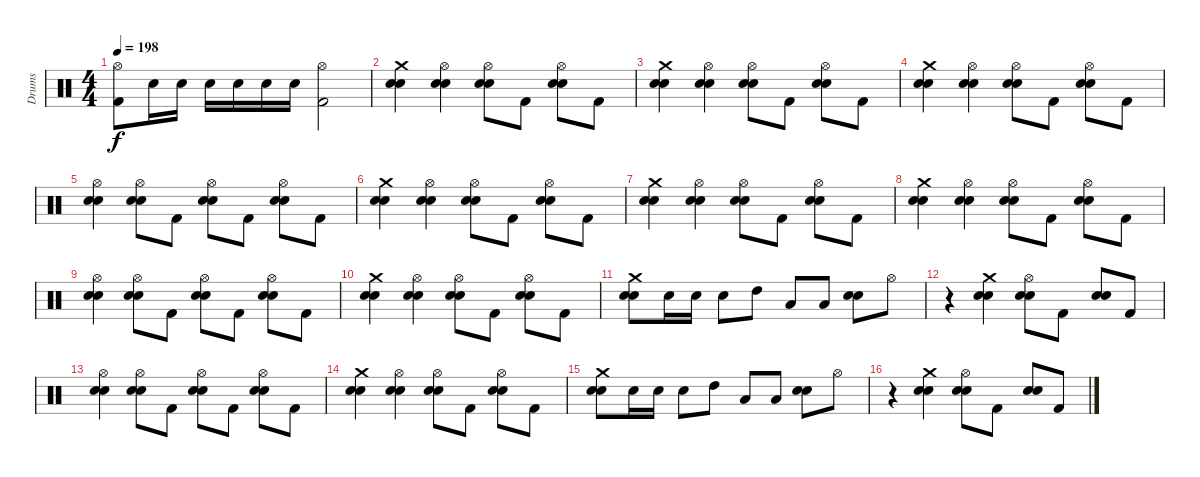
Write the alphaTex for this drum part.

\track ("Drums" "Drums") {instrument percussion}
\staff {score}
\articulation defaults
\ts (4 4)
\tempo 198
\clef neutral
\ks c
("Hi-Hat (open)" "Kick (hit) 2").8{dy f} "Electric Snare (hit)".16 "Electric Snare (hit)".16 "Electric Snare (hit)".16 "Electric Snare (hit)".16 "Electric Snare (hit)".16 "Electric Snare (hit)".16 ("Hi-Hat (open)" "Kick (hit) 2").2 |
("Crash medium (hit)" "Electric Snare (hit)" "Snare (hit) 2").4 ("Hi-Hat (open)" "Electric Snare (hit)" "Snare (hit) 2").4 ("Hi-Hat (open)" "Electric Snare (hit)" "Snare (hit) 2").8 "Kick (hit) 2".8 ("Hi-Hat (open)" "Electric Snare (hit)" "Snare (hit) 2").8 "Kick (hit) 2".8 |
("Crash medium (hit)" "Electric Snare (hit)" "Snare (hit) 2").4 ("Hi-Hat (open)" "Electric Snare (hit)" "Snare (hit) 2").4 ("Hi-Hat (open)" "Electric Snare (hit)" "Snare (hit) 2").8 "Kick (hit) 2".8 ("Hi-Hat (open)" "Electric Snare (hit)" "Snare (hit) 2").8 "Kick (hit) 2".8 |
("Crash medium (hit)" "Electric Snare (hit)" "Snare (hit) 2").4 ("Hi-Hat (open)" "Electric Snare (hit)" "Snare (hit) 2").4 ("Hi-Hat (open)" "Electric Snare (hit)" "Snare (hit) 2").8 "Kick (hit) 2".8 ("Hi-Hat (open)" "Electric Snare (hit)" "Snare (hit) 2").8 "Kick (hit) 2".8 |
("Hi-Hat (open)" "Electric Snare (hit)" "Snare (hit) 2").4 ("Hi-Hat (open)" "Electric Snare (hit)" "Snare (hit) 2").8 "Kick (hit) 2".8 ("Hi-Hat (open)" "Electric Snare (hit)" "Snare (hit) 2").8 "Kick (hit) 2".8 ("Hi-Hat (open)" "Electric Snare (hit)" "Snare (hit) 2").8 "Kick (hit) 2".8 |
("Crash medium (hit)" "Electric Snare (hit)" "Snare (hit) 2").4 ("Hi-Hat (open)" "Electric Snare (hit)" "Snare (hit) 2").4 ("Hi-Hat (open)" "Electric Snare (hit)" "Snare (hit) 2").8 "Kick (hit) 2".8 ("Hi-Hat (open)" "Electric Snare (hit)" "Snare (hit) 2").8 "Kick (hit) 2".8 |
("Crash medium (hit)" "Electric Snare (hit)" "Snare (hit) 2").4 ("Hi-Hat (open)" "Electric Snare (hit)" "Snare (hit) 2").4 ("Hi-Hat (open)" "Electric Snare (hit)" "Snare (hit) 2").8 "Kick (hit) 2".8 ("Hi-Hat (open)" "Electric Snare (hit)" "Snare (hit) 2").8 "Kick (hit) 2".8 |
("Crash medium (hit)" "Electric Snare (hit)" "Snare (hit) 2").4 ("Hi-Hat (open)" "Electric Snare (hit)" "Snare (hit) 2").4 ("Hi-Hat (open)" "Electric Snare (hit)" "Snare (hit) 2").8 "Kick (hit) 2".8 ("Hi-Hat (open)" "Electric Snare (hit)" "Snare (hit) 2").8 "Kick (hit) 2".8 |
("Hi-Hat (open)" "Electric Snare (hit)" "Snare (hit) 2").4 ("Hi-Hat (open)" "Electric Snare (hit)" "Snare (hit) 2").8 "Kick (hit) 2".8 ("Hi-Hat (open)" "Electric Snare (hit)" "Snare (hit) 2").8 "Kick (hit) 2".8 ("Hi-Hat (open)" "Electric Snare (hit)" "Snare (hit) 2").8 "Kick (hit) 2".8 |
("Crash medium (hit)" "Electric Snare (hit)" "Snare (hit) 2").4 ("Hi-Hat (open)" "Electric Snare (hit)" "Snare (hit) 2").4 ("Hi-Hat (open)" "Electric Snare (hit)" "Snare (hit) 2").8 "Kick (hit) 2".8 ("Hi-Hat (open)" "Electric Snare (hit)" "Snare (hit) 2").8 "Kick (hit) 2".8 |
("Crash medium (hit)" "Electric Snare (hit)" "Snare (hit) 2").8 "Electric Snare (hit)".16 "Electric Snare (hit)".16 "Electric Snare (hit)".8 "High Tom (hit)".8 "Low Floor Tom (hit)".8 "Low Floor Tom (hit)".8 ("Electric Snare (hit)" "Snare (hit) 2").8 "Hi-Hat (open)".8 |
r.4 ("Crash medium (hit)" "Electric Snare (hit)" "Snare (hit) 2").4 ("Hi-Hat (open)" "Electric Snare (hit)" "Snare (hit) 2").8 "Kick (hit) 2".8 ("Electric Snare (hit)" "Snare (hit) 2").8 "Kick (hit) 2".8 |
("Hi-Hat (open)" "Electric Snare (hit)" "Snare (hit) 2").4 ("Hi-Hat (open)" "Electric Snare (hit)" "Snare (hit) 2").8 "Kick (hit) 2".8 ("Hi-Hat (open)" "Electric Snare (hit)" "Snare (hit) 2").8 "Kick (hit) 2".8 ("Hi-Hat (open)" "Electric Snare (hit)" "Snare (hit) 2").8 "Kick (hit) 2".8 |
("Crash medium (hit)" "Electric Snare (hit)" "Snare (hit) 2").4 ("Hi-Hat (open)" "Electric Snare (hit)" "Snare (hit) 2").4 ("Hi-Hat (open)" "Electric Snare (hit)" "Snare (hit) 2").8 "Kick (hit) 2".8 ("Hi-Hat (open)" "Electric Snare (hit)" "Snare (hit) 2").8 "Kick (hit) 2".8 |
("Crash medium (hit)" "Electric Snare (hit)" "Snare (hit) 2").8 "Electric Snare (hit)".16 "Electric Snare (hit)".16 "Electric Snare (hit)".8 "High Tom (hit)".8 "Low Floor Tom (hit)".8 "Low Floor Tom (hit)".8 ("Electric Snare (hit)" "Snare (hit) 2").8 "Hi-Hat (open)".8 |
r.4 ("Crash medium (hit)" "Electric Snare (hit)" "Snare (hit) 2").4 ("Hi-Hat (open)" "Electric Snare (hit)" "Snare (hit) 2").8 "Kick (hit) 2".8 ("Electric Snare (hit)" "Snare (hit) 2").8 "Kick (hit) 2".8
